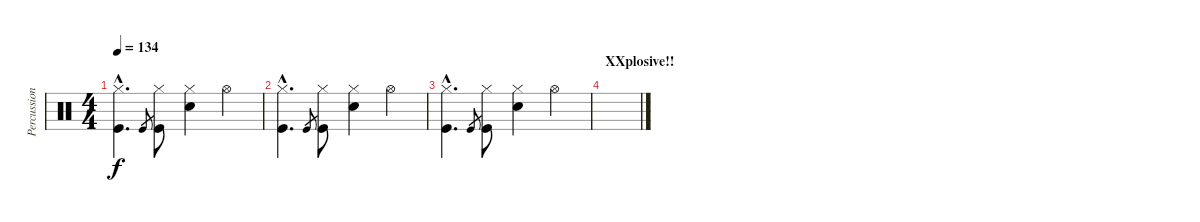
\track ("Percussions" "Percussion") {instrument percussion}
\staff {score}
\articulation defaults
\ts (4 4)
\tempo 134
\clef neutral
\ks c
("Hi-Hat (closed)"{hac} "Kick (hit)"{hac}).4{d dy f} "Kick (hit)".8{gr} ("Hi-Hat (closed)" "Kick (hit)").8 ("Hi-Hat (closed)" "Electric Snare (hit)").4 "Hi-Hat (open)".4 |
("Hi-Hat (closed)"{hac} "Kick (hit)"{hac}).4{d} "Kick (hit)".8{gr} ("Hi-Hat (closed)" "Kick (hit)").8 ("Hi-Hat (closed)" "Electric Snare (hit)").4 "Hi-Hat (open)".4 |
("Hi-Hat (closed)"{hac} "Kick (hit)"{hac}).4{d} "Kick (hit)".8{gr} ("Hi-Hat (closed)" "Kick (hit)").8 ("Hi-Hat (closed)" "Electric Snare (hit)").4 "Hi-Hat (open)".4 |
\section ("" "XXplosive!!")
